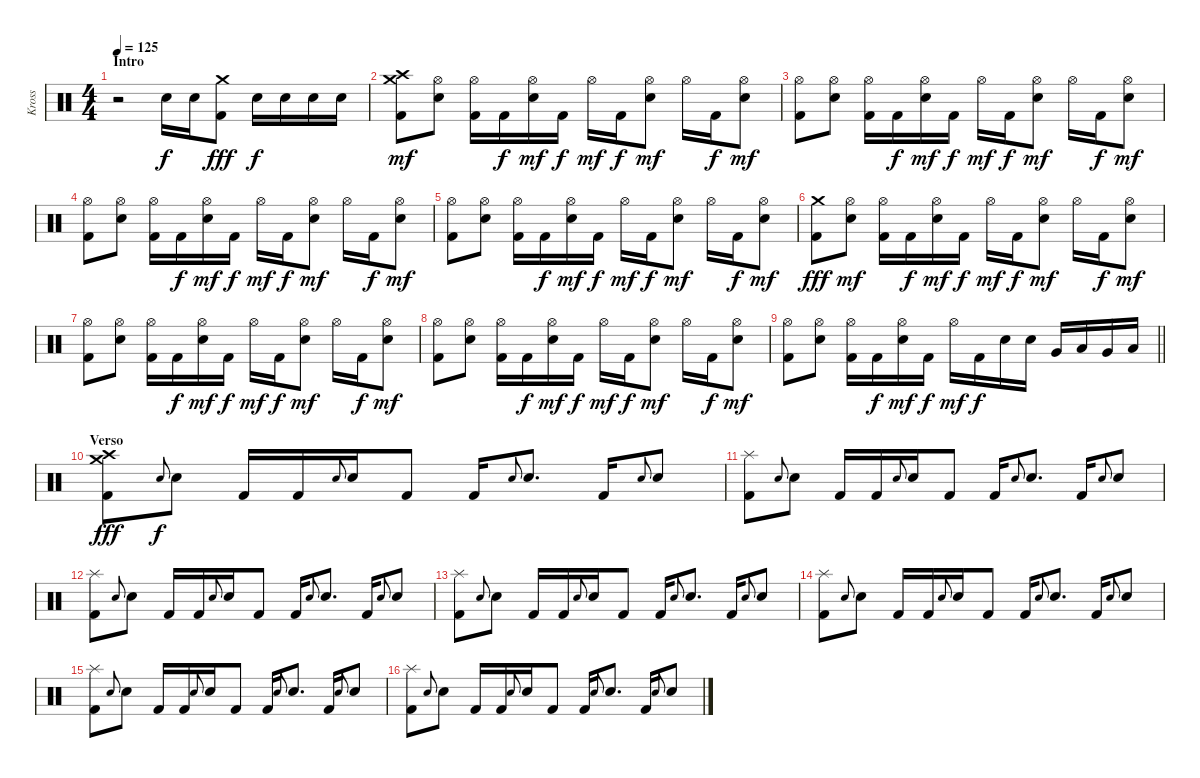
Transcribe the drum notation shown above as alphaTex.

\track ("Kross" "Kross") {instrument percussion}
\staff {score}
\articulation defaults
\ts (4 4)
\section ("" "Intro")
\tempo 125
\clef neutral
\ks c
r.2{dy f} "Snare (hit) 2".16 "Snare (hit) 2".16 ("Crash medium (hit)" "Kick (hit) 2").8{dy fff} "Snare (hit) 2".16{dy f} "Snare (hit) 2".16 "Snare (hit) 2".16 "Snare (hit) 2".16 |
("Crash medium (hit)" "Crash high (hit)" "Kick (hit) 2").8{dy mf} ("Hi-Hat (open)" "Snare (hit) 2").8 ("Hi-Hat (open)" "Kick (hit) 2").16 "Kick (hit) 2".16{dy f} ("Hi-Hat (open)" "Snare (hit) 2").16{dy mf} "Kick (hit) 2".16{dy f} "Hi-Hat (open)".16{dy mf} "Kick (hit) 2".16{dy f} ("Hi-Hat (open)" "Snare (hit) 2").8{dy mf} "Hi-Hat (open)".16 "Kick (hit) 2".16{dy f} ("Hi-Hat (open)" "Snare (hit) 2").8{dy mf} |
("Hi-Hat (open)" "Kick (hit) 2").8 ("Hi-Hat (open)" "Snare (hit) 2").8 ("Hi-Hat (open)" "Kick (hit) 2").16 "Kick (hit) 2".16{dy f} ("Hi-Hat (open)" "Snare (hit) 2").16{dy mf} "Kick (hit) 2".16{dy f} "Hi-Hat (open)".16{dy mf} "Kick (hit) 2".16{dy f} ("Hi-Hat (open)" "Snare (hit) 2").8{dy mf} "Hi-Hat (open)".16 "Kick (hit) 2".16{dy f} ("Hi-Hat (open)" "Snare (hit) 2").8{dy mf} |
("Hi-Hat (open)" "Kick (hit) 2").8 ("Hi-Hat (open)" "Snare (hit) 2").8 ("Hi-Hat (open)" "Kick (hit) 2").16 "Kick (hit) 2".16{dy f} ("Hi-Hat (open)" "Snare (hit) 2").16{dy mf} "Kick (hit) 2".16{dy f} "Hi-Hat (open)".16{dy mf} "Kick (hit) 2".16{dy f} ("Hi-Hat (open)" "Snare (hit) 2").8{dy mf} "Hi-Hat (open)".16 "Kick (hit) 2".16{dy f} ("Hi-Hat (open)" "Snare (hit) 2").8{dy mf} |
("Hi-Hat (open)" "Kick (hit) 2").8 ("Hi-Hat (open)" "Snare (hit) 2").8 ("Hi-Hat (open)" "Kick (hit) 2").16 "Kick (hit) 2".16{dy f} ("Hi-Hat (open)" "Snare (hit) 2").16{dy mf} "Kick (hit) 2".16{dy f} "Hi-Hat (open)".16{dy mf} "Kick (hit) 2".16{dy f} ("Hi-Hat (open)" "Snare (hit) 2").8{dy mf} "Hi-Hat (open)".16 "Kick (hit) 2".16{dy f} ("Hi-Hat (open)" "Snare (hit) 2").8{dy mf} |
("Crash medium (hit)" "Kick (hit) 2").8{dy fff} ("Hi-Hat (open)" "Snare (hit) 2").8{dy mf} ("Hi-Hat (open)" "Kick (hit) 2").16 "Kick (hit) 2".16{dy f} ("Hi-Hat (open)" "Snare (hit) 2").16{dy mf} "Kick (hit) 2".16{dy f} "Hi-Hat (open)".16{dy mf} "Kick (hit) 2".16{dy f} ("Hi-Hat (open)" "Snare (hit) 2").8{dy mf} "Hi-Hat (open)".16 "Kick (hit) 2".16{dy f} ("Hi-Hat (open)" "Snare (hit) 2").8{dy mf} |
("Hi-Hat (open)" "Kick (hit) 2").8 ("Hi-Hat (open)" "Snare (hit) 2").8 ("Hi-Hat (open)" "Kick (hit) 2").16 "Kick (hit) 2".16{dy f} ("Hi-Hat (open)" "Snare (hit) 2").16{dy mf} "Kick (hit) 2".16{dy f} "Hi-Hat (open)".16{dy mf} "Kick (hit) 2".16{dy f} ("Hi-Hat (open)" "Snare (hit) 2").8{dy mf} "Hi-Hat (open)".16 "Kick (hit) 2".16{dy f} ("Hi-Hat (open)" "Snare (hit) 2").8{dy mf} |
("Hi-Hat (open)" "Kick (hit) 2").8 ("Hi-Hat (open)" "Snare (hit) 2").8 ("Hi-Hat (open)" "Kick (hit) 2").16 "Kick (hit) 2".16{dy f} ("Hi-Hat (open)" "Snare (hit) 2").16{dy mf} "Kick (hit) 2".16{dy f} "Hi-Hat (open)".16{dy mf} "Kick (hit) 2".16{dy f} ("Hi-Hat (open)" "Snare (hit) 2").8{dy mf} "Hi-Hat (open)".16 "Kick (hit) 2".16{dy f} ("Hi-Hat (open)" "Snare (hit) 2").8{dy mf} |
\barLineRight lightlight
("Hi-Hat (open)" "Kick (hit) 2").8 ("Hi-Hat (open)" "Snare (hit) 2").8 ("Hi-Hat (open)" "Kick (hit) 2").16 "Kick (hit) 2".16{dy f} ("Hi-Hat (open)" "Snare (hit) 2").16{dy mf} "Kick (hit) 2".16{dy f} "Hi-Hat (open)".16{dy mf} "Kick (hit) 2".16{dy f} "Snare (hit) 2".16 "Snare (hit) 2".16 "Very Low Tom (hit)".16 "Low Tom (hit)".16 "Very Low Tom (hit)".16 "Low Tom (hit)".16 |
\section ("" "Verso")
("Crash high (hit)" "Crash medium (hit)" "Kick (hit) 2").8{dy fff} "Snare (hit) 2".8{gr onbeat dy f} "Snare (hit) 2".8 "Kick (hit) 2".16 "Kick (hit) 2".16 "Snare (hit) 2".8{gr onbeat} "Snare (hit) 2".16 "Kick (hit) 2".8 "Kick (hit) 2".16 "Snare (hit) 2".8{gr onbeat} "Snare (hit) 2".8{d} "Kick (hit) 2".16 "Snare (hit) 2".8{gr onbeat} "Snare (hit) 2".8 |
("Splash (hit)" "Kick (hit) 2").8 "Snare (hit) 2".8{gr onbeat} "Snare (hit) 2".8 "Kick (hit) 2".16 "Kick (hit) 2".16 "Snare (hit) 2".8{gr onbeat} "Snare (hit) 2".16 "Kick (hit) 2".8 "Kick (hit) 2".16 "Snare (hit) 2".8{gr onbeat} "Snare (hit) 2".8{d} "Kick (hit) 2".16 "Snare (hit) 2".8{gr onbeat} "Snare (hit) 2".8 |
("Splash (hit)" "Kick (hit) 2").8 "Snare (hit) 2".8{gr onbeat} "Snare (hit) 2".8 "Kick (hit) 2".16 "Kick (hit) 2".16 "Snare (hit) 2".8{gr onbeat} "Snare (hit) 2".16 "Kick (hit) 2".8 "Kick (hit) 2".16 "Snare (hit) 2".8{gr onbeat} "Snare (hit) 2".8{d} "Kick (hit) 2".16 "Snare (hit) 2".8{gr onbeat} "Snare (hit) 2".8 |
("Splash (hit)" "Kick (hit) 2").8 "Snare (hit) 2".8{gr onbeat} "Snare (hit) 2".8 "Kick (hit) 2".16 "Kick (hit) 2".16 "Snare (hit) 2".8{gr onbeat} "Snare (hit) 2".16 "Kick (hit) 2".8 "Kick (hit) 2".16 "Snare (hit) 2".8{gr onbeat} "Snare (hit) 2".8{d} "Kick (hit) 2".16 "Snare (hit) 2".8{gr onbeat} "Snare (hit) 2".8 |
("Splash (hit)" "Kick (hit) 2").8 "Snare (hit) 2".8{gr onbeat} "Snare (hit) 2".8 "Kick (hit) 2".16 "Kick (hit) 2".16 "Snare (hit) 2".8{gr onbeat} "Snare (hit) 2".16 "Kick (hit) 2".8 "Kick (hit) 2".16 "Snare (hit) 2".8{gr onbeat} "Snare (hit) 2".8{d} "Kick (hit) 2".16 "Snare (hit) 2".8{gr onbeat} "Snare (hit) 2".8 |
("Splash (hit)" "Kick (hit) 2").8 "Snare (hit) 2".8{gr onbeat} "Snare (hit) 2".8 "Kick (hit) 2".16 "Kick (hit) 2".16 "Snare (hit) 2".8{gr onbeat} "Snare (hit) 2".16 "Kick (hit) 2".8 "Kick (hit) 2".16 "Snare (hit) 2".8{gr onbeat} "Snare (hit) 2".8{d} "Kick (hit) 2".16 "Snare (hit) 2".8{gr onbeat} "Snare (hit) 2".8 |
("Splash (hit)" "Kick (hit) 2").8 "Snare (hit) 2".8{gr onbeat} "Snare (hit) 2".8 "Kick (hit) 2".16 "Kick (hit) 2".16 "Snare (hit) 2".8{gr onbeat} "Snare (hit) 2".16 "Kick (hit) 2".8 "Kick (hit) 2".16 "Snare (hit) 2".8{gr onbeat} "Snare (hit) 2".8{d} "Kick (hit) 2".16 "Snare (hit) 2".8{gr onbeat} "Snare (hit) 2".8
